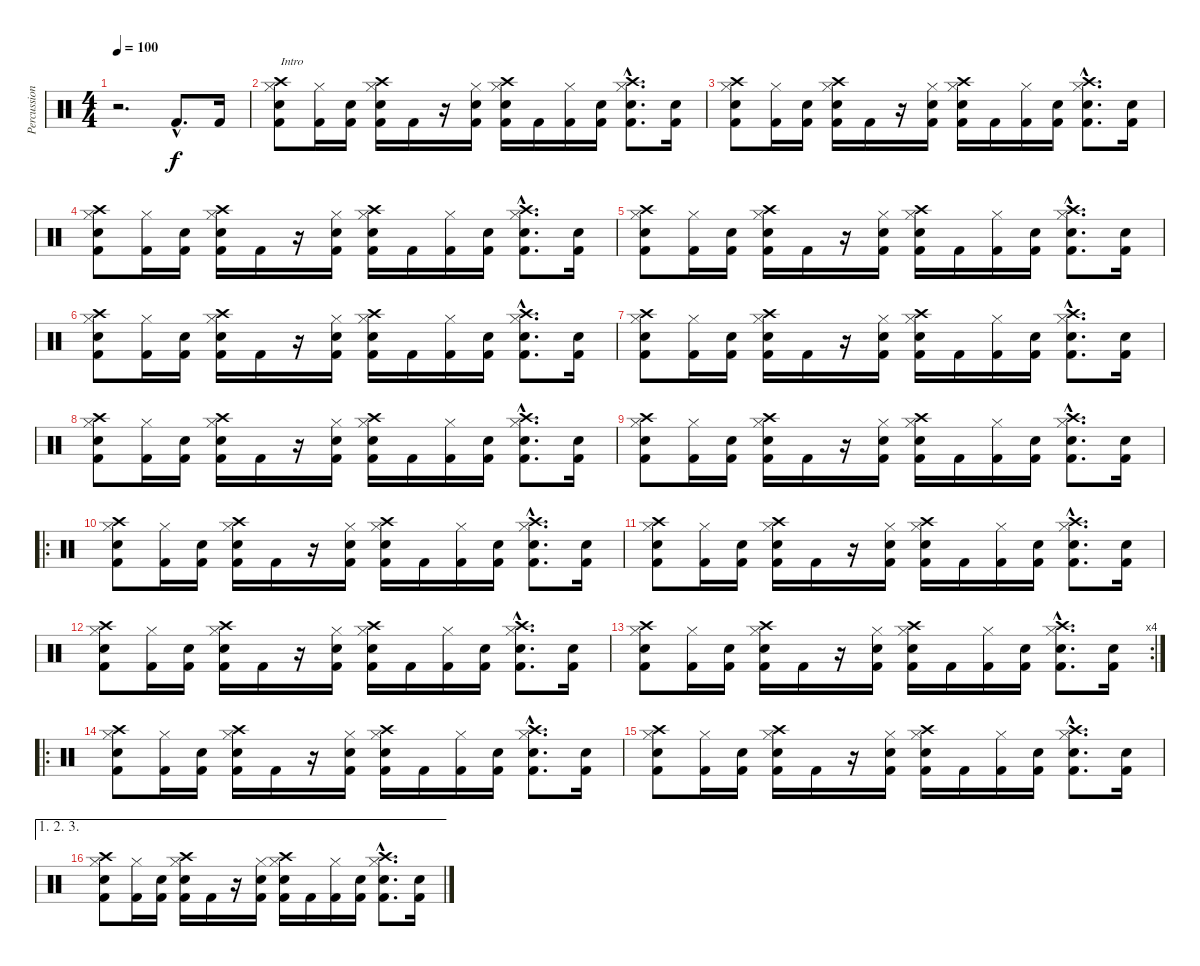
\track ("Percussion" "Percussion") {instrument percussion}
\staff {score}
\articulation defaults
\ts (4 4)
\tempo 100
\clef neutral
\ks c
r.2{d dy f} "Kick (hit) 2"{hac}.8{d} "Kick (hit) 2".16 |
("Electric Snare (hit)" "Kick (hit) 2" "Hi-Hat (closed)" "Crash high (hit)").8{txt "Intro"} ("Kick (hit) 2" "Hi-Hat (closed)").16 ("Electric Snare (hit)" "Kick (hit) 2").16 ("Electric Snare (hit)" "Kick (hit) 2" "Hi-Hat (closed)" "Crash high (hit)").16 "Kick (hit) 2".16 r.16 ("Electric Snare (hit)" "Kick (hit) 2" "Hi-Hat (closed)").16 ("Electric Snare (hit)" "Kick (hit) 2" "Hi-Hat (closed)" "Crash high (hit)").16 "Kick (hit) 2".16 ("Kick (hit) 2" "Hi-Hat (closed)").16 ("Electric Snare (hit)" "Kick (hit) 2").16 ("Electric Snare (hit)"{hac} "Kick (hit) 2"{hac} "Hi-Hat (closed)"{hac} "Crash high (hit)"{hac}).8{d} ("Electric Snare (hit)" "Kick (hit) 2").16 |
("Electric Snare (hit)" "Kick (hit) 2" "Hi-Hat (closed)" "Crash high (hit)").8 ("Kick (hit) 2" "Hi-Hat (closed)").16 ("Electric Snare (hit)" "Kick (hit) 2").16 ("Electric Snare (hit)" "Kick (hit) 2" "Hi-Hat (closed)" "Crash high (hit)").16 "Kick (hit) 2".16 r.16 ("Electric Snare (hit)" "Kick (hit) 2" "Hi-Hat (closed)").16 ("Electric Snare (hit)" "Kick (hit) 2" "Hi-Hat (closed)" "Crash high (hit)").16 "Kick (hit) 2".16 ("Kick (hit) 2" "Hi-Hat (closed)").16 ("Electric Snare (hit)" "Kick (hit) 2").16 ("Electric Snare (hit)"{hac} "Kick (hit) 2"{hac} "Hi-Hat (closed)"{hac} "Crash high (hit)"{hac}).8{d} ("Electric Snare (hit)" "Kick (hit) 2").16 |
("Electric Snare (hit)" "Kick (hit) 2" "Hi-Hat (closed)" "Crash high (hit)").8 ("Kick (hit) 2" "Hi-Hat (closed)").16 ("Electric Snare (hit)" "Kick (hit) 2").16 ("Electric Snare (hit)" "Kick (hit) 2" "Hi-Hat (closed)" "Crash high (hit)").16 "Kick (hit) 2".16 r.16 ("Electric Snare (hit)" "Kick (hit) 2" "Hi-Hat (closed)").16 ("Electric Snare (hit)" "Kick (hit) 2" "Hi-Hat (closed)" "Crash high (hit)").16 "Kick (hit) 2".16 ("Kick (hit) 2" "Hi-Hat (closed)").16 ("Electric Snare (hit)" "Kick (hit) 2").16 ("Electric Snare (hit)"{hac} "Kick (hit) 2"{hac} "Hi-Hat (closed)"{hac} "Crash high (hit)"{hac}).8{d} ("Electric Snare (hit)" "Kick (hit) 2").16 |
("Electric Snare (hit)" "Kick (hit) 2" "Hi-Hat (closed)" "Crash high (hit)").8 ("Kick (hit) 2" "Hi-Hat (closed)").16 ("Electric Snare (hit)" "Kick (hit) 2").16 ("Electric Snare (hit)" "Kick (hit) 2" "Hi-Hat (closed)" "Crash high (hit)").16 "Kick (hit) 2".16 r.16 ("Electric Snare (hit)" "Kick (hit) 2" "Hi-Hat (closed)").16 ("Electric Snare (hit)" "Kick (hit) 2" "Hi-Hat (closed)" "Crash high (hit)").16 "Kick (hit) 2".16 ("Kick (hit) 2" "Hi-Hat (closed)").16 ("Electric Snare (hit)" "Kick (hit) 2").16 ("Electric Snare (hit)"{hac} "Kick (hit) 2"{hac} "Hi-Hat (closed)"{hac} "Crash high (hit)"{hac}).8{d} ("Electric Snare (hit)" "Kick (hit) 2").16 |
("Electric Snare (hit)" "Kick (hit) 2" "Hi-Hat (closed)" "Crash high (hit)").8 ("Kick (hit) 2" "Hi-Hat (closed)").16 ("Electric Snare (hit)" "Kick (hit) 2").16 ("Electric Snare (hit)" "Kick (hit) 2" "Hi-Hat (closed)" "Crash high (hit)").16 "Kick (hit) 2".16 r.16 ("Electric Snare (hit)" "Kick (hit) 2" "Hi-Hat (closed)").16 ("Electric Snare (hit)" "Kick (hit) 2" "Hi-Hat (closed)" "Crash high (hit)").16 "Kick (hit) 2".16 ("Kick (hit) 2" "Hi-Hat (closed)").16 ("Electric Snare (hit)" "Kick (hit) 2").16 ("Electric Snare (hit)"{hac} "Kick (hit) 2"{hac} "Hi-Hat (closed)"{hac} "Crash high (hit)"{hac}).8{d} ("Electric Snare (hit)" "Kick (hit) 2").16 |
("Electric Snare (hit)" "Kick (hit) 2" "Hi-Hat (closed)" "Crash high (hit)").8 ("Kick (hit) 2" "Hi-Hat (closed)").16 ("Electric Snare (hit)" "Kick (hit) 2").16 ("Electric Snare (hit)" "Kick (hit) 2" "Hi-Hat (closed)" "Crash high (hit)").16 "Kick (hit) 2".16 r.16 ("Electric Snare (hit)" "Kick (hit) 2" "Hi-Hat (closed)").16 ("Electric Snare (hit)" "Kick (hit) 2" "Hi-Hat (closed)" "Crash high (hit)").16 "Kick (hit) 2".16 ("Kick (hit) 2" "Hi-Hat (closed)").16 ("Electric Snare (hit)" "Kick (hit) 2").16 ("Electric Snare (hit)"{hac} "Kick (hit) 2"{hac} "Hi-Hat (closed)"{hac} "Crash high (hit)"{hac}).8{d} ("Electric Snare (hit)" "Kick (hit) 2").16 |
("Electric Snare (hit)" "Kick (hit) 2" "Hi-Hat (closed)" "Crash high (hit)").8 ("Kick (hit) 2" "Hi-Hat (closed)").16 ("Electric Snare (hit)" "Kick (hit) 2").16 ("Electric Snare (hit)" "Kick (hit) 2" "Hi-Hat (closed)" "Crash high (hit)").16 "Kick (hit) 2".16 r.16 ("Electric Snare (hit)" "Kick (hit) 2" "Hi-Hat (closed)").16 ("Electric Snare (hit)" "Kick (hit) 2" "Hi-Hat (closed)" "Crash high (hit)").16 "Kick (hit) 2".16 ("Kick (hit) 2" "Hi-Hat (closed)").16 ("Electric Snare (hit)" "Kick (hit) 2").16 ("Electric Snare (hit)"{hac} "Kick (hit) 2"{hac} "Hi-Hat (closed)"{hac} "Crash high (hit)"{hac}).8{d} ("Electric Snare (hit)" "Kick (hit) 2").16 |
("Electric Snare (hit)" "Kick (hit) 2" "Hi-Hat (closed)" "Crash high (hit)").8 ("Kick (hit) 2" "Hi-Hat (closed)").16 ("Electric Snare (hit)" "Kick (hit) 2").16 ("Electric Snare (hit)" "Kick (hit) 2" "Hi-Hat (closed)" "Crash high (hit)").16 "Kick (hit) 2".16 r.16 ("Electric Snare (hit)" "Kick (hit) 2" "Hi-Hat (closed)").16 ("Electric Snare (hit)" "Kick (hit) 2" "Hi-Hat (closed)" "Crash high (hit)").16 "Kick (hit) 2".16 ("Kick (hit) 2" "Hi-Hat (closed)").16 ("Electric Snare (hit)" "Kick (hit) 2").16 ("Electric Snare (hit)"{hac} "Kick (hit) 2"{hac} "Hi-Hat (closed)"{hac} "Crash high (hit)"{hac}).8{d} ("Electric Snare (hit)" "Kick (hit) 2").16 |
\ro
("Electric Snare (hit)" "Kick (hit) 2" "Hi-Hat (closed)" "Crash high (hit)").8 ("Kick (hit) 2" "Hi-Hat (closed)").16 ("Electric Snare (hit)" "Kick (hit) 2").16 ("Electric Snare (hit)" "Kick (hit) 2" "Hi-Hat (closed)" "Crash high (hit)").16 "Kick (hit) 2".16 r.16 ("Electric Snare (hit)" "Kick (hit) 2" "Hi-Hat (closed)").16 ("Electric Snare (hit)" "Kick (hit) 2" "Hi-Hat (closed)" "Crash high (hit)").16 "Kick (hit) 2".16 ("Kick (hit) 2" "Hi-Hat (closed)").16 ("Electric Snare (hit)" "Kick (hit) 2").16 ("Electric Snare (hit)"{hac} "Kick (hit) 2"{hac} "Hi-Hat (closed)"{hac} "Crash high (hit)"{hac}).8{d} ("Electric Snare (hit)" "Kick (hit) 2").16 |
("Electric Snare (hit)" "Kick (hit) 2" "Hi-Hat (closed)" "Crash high (hit)").8 ("Kick (hit) 2" "Hi-Hat (closed)").16 ("Electric Snare (hit)" "Kick (hit) 2").16 ("Electric Snare (hit)" "Kick (hit) 2" "Hi-Hat (closed)" "Crash high (hit)").16 "Kick (hit) 2".16 r.16 ("Electric Snare (hit)" "Kick (hit) 2" "Hi-Hat (closed)").16 ("Electric Snare (hit)" "Kick (hit) 2" "Hi-Hat (closed)" "Crash high (hit)").16 "Kick (hit) 2".16 ("Kick (hit) 2" "Hi-Hat (closed)").16 ("Electric Snare (hit)" "Kick (hit) 2").16 ("Electric Snare (hit)"{hac} "Kick (hit) 2"{hac} "Hi-Hat (closed)"{hac} "Crash high (hit)"{hac}).8{d} ("Electric Snare (hit)" "Kick (hit) 2").16 |
("Electric Snare (hit)" "Kick (hit) 2" "Hi-Hat (closed)" "Crash high (hit)").8 ("Kick (hit) 2" "Hi-Hat (closed)").16 ("Electric Snare (hit)" "Kick (hit) 2").16 ("Electric Snare (hit)" "Kick (hit) 2" "Hi-Hat (closed)" "Crash high (hit)").16 "Kick (hit) 2".16 r.16 ("Electric Snare (hit)" "Kick (hit) 2" "Hi-Hat (closed)").16 ("Electric Snare (hit)" "Kick (hit) 2" "Hi-Hat (closed)" "Crash high (hit)").16 "Kick (hit) 2".16 ("Kick (hit) 2" "Hi-Hat (closed)").16 ("Electric Snare (hit)" "Kick (hit) 2").16 ("Electric Snare (hit)"{hac} "Kick (hit) 2"{hac} "Hi-Hat (closed)"{hac} "Crash high (hit)"{hac}).8{d} ("Electric Snare (hit)" "Kick (hit) 2").16 |
\rc 4
("Electric Snare (hit)" "Kick (hit) 2" "Hi-Hat (closed)" "Crash high (hit)").8 ("Kick (hit) 2" "Hi-Hat (closed)").16 ("Electric Snare (hit)" "Kick (hit) 2").16 ("Electric Snare (hit)" "Kick (hit) 2" "Hi-Hat (closed)" "Crash high (hit)").16 "Kick (hit) 2".16 r.16 ("Electric Snare (hit)" "Kick (hit) 2" "Hi-Hat (closed)").16 ("Electric Snare (hit)" "Kick (hit) 2" "Hi-Hat (closed)" "Crash high (hit)").16 "Kick (hit) 2".16 ("Kick (hit) 2" "Hi-Hat (closed)").16 ("Electric Snare (hit)" "Kick (hit) 2").16 ("Electric Snare (hit)"{hac} "Kick (hit) 2"{hac} "Hi-Hat (closed)"{hac} "Crash high (hit)"{hac}).8{d} ("Electric Snare (hit)" "Kick (hit) 2").16 |
\ro
("Electric Snare (hit)" "Kick (hit) 2" "Hi-Hat (closed)" "Crash high (hit)").8 ("Kick (hit) 2" "Hi-Hat (closed)").16 ("Electric Snare (hit)" "Kick (hit) 2").16 ("Electric Snare (hit)" "Kick (hit) 2" "Hi-Hat (closed)" "Crash high (hit)").16 "Kick (hit) 2".16 r.16 ("Electric Snare (hit)" "Kick (hit) 2" "Hi-Hat (closed)").16 ("Electric Snare (hit)" "Kick (hit) 2" "Hi-Hat (closed)" "Crash high (hit)").16 "Kick (hit) 2".16 ("Kick (hit) 2" "Hi-Hat (closed)").16 ("Electric Snare (hit)" "Kick (hit) 2").16 ("Electric Snare (hit)"{hac} "Kick (hit) 2"{hac} "Hi-Hat (closed)"{hac} "Crash high (hit)"{hac}).8{d} ("Electric Snare (hit)" "Kick (hit) 2").16 |
("Electric Snare (hit)" "Kick (hit) 2" "Hi-Hat (closed)" "Crash high (hit)").8 ("Kick (hit) 2" "Hi-Hat (closed)").16 ("Electric Snare (hit)" "Kick (hit) 2").16 ("Electric Snare (hit)" "Kick (hit) 2" "Hi-Hat (closed)" "Crash high (hit)").16 "Kick (hit) 2".16 r.16 ("Electric Snare (hit)" "Kick (hit) 2" "Hi-Hat (closed)").16 ("Electric Snare (hit)" "Kick (hit) 2" "Hi-Hat (closed)" "Crash high (hit)").16 "Kick (hit) 2".16 ("Kick (hit) 2" "Hi-Hat (closed)").16 ("Electric Snare (hit)" "Kick (hit) 2").16 ("Electric Snare (hit)"{hac} "Kick (hit) 2"{hac} "Hi-Hat (closed)"{hac} "Crash high (hit)"{hac}).8{d} ("Electric Snare (hit)" "Kick (hit) 2").16 |
\ae (1 2 3)
("Electric Snare (hit)" "Kick (hit) 2" "Hi-Hat (closed)" "Crash high (hit)").8 ("Kick (hit) 2" "Hi-Hat (closed)").16 ("Electric Snare (hit)" "Kick (hit) 2").16 ("Electric Snare (hit)" "Kick (hit) 2" "Hi-Hat (closed)" "Crash high (hit)").16 "Kick (hit) 2".16 r.16 ("Electric Snare (hit)" "Kick (hit) 2" "Hi-Hat (closed)").16 ("Electric Snare (hit)" "Kick (hit) 2" "Hi-Hat (closed)" "Crash high (hit)").16 "Kick (hit) 2".16 ("Kick (hit) 2" "Hi-Hat (closed)").16 ("Electric Snare (hit)" "Kick (hit) 2").16 ("Electric Snare (hit)"{hac} "Kick (hit) 2"{hac} "Hi-Hat (closed)"{hac} "Crash high (hit)"{hac}).8{d} ("Electric Snare (hit)" "Kick (hit) 2").16
